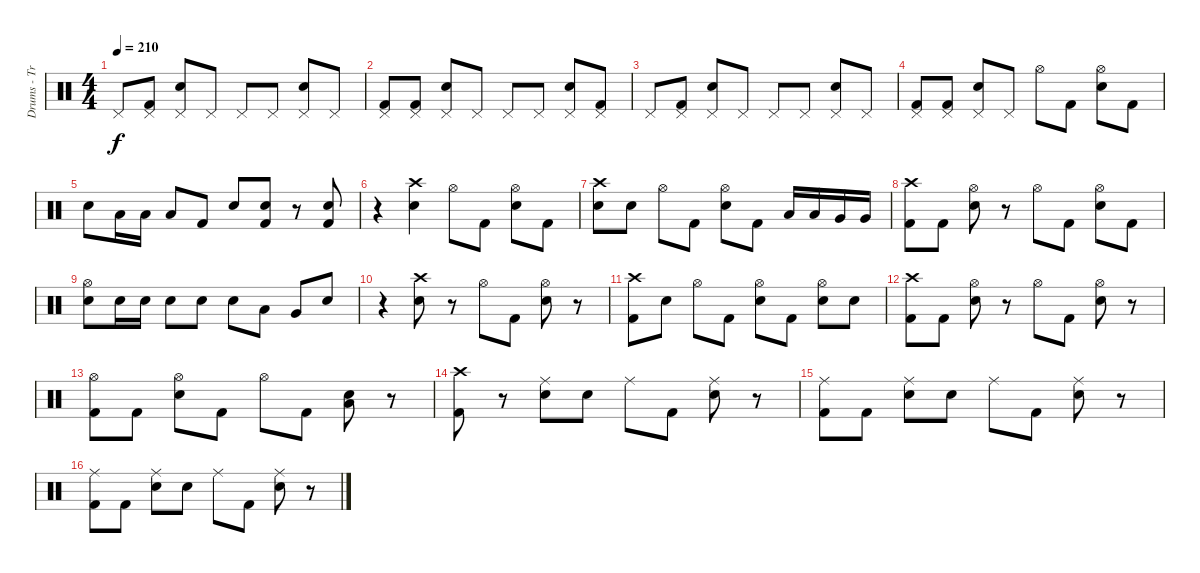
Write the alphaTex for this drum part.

\track ("Drums - Travis Barker" "Drums - Tr") {instrument percussion}
\staff {score}
\articulation defaults
\ts (4 4)
\tempo 210
\clef neutral
\ks c "Pedal Hi-Hat (hit)".8{dy f}
("Pedal Hi-Hat (hit)" "Kick (hit) 2").8 ("Pedal Hi-Hat (hit)" "Electric Snare (hit)").8 "Pedal Hi-Hat (hit)".8 "Pedal Hi-Hat (hit)".8 "Pedal Hi-Hat (hit)".8 ("Pedal Hi-Hat (hit)" "Electric Snare (hit)").8 "Pedal Hi-Hat (hit)".8 |
("Pedal Hi-Hat (hit)" "Kick (hit) 2").8 ("Pedal Hi-Hat (hit)" "Kick (hit) 2").8 ("Pedal Hi-Hat (hit)" "Electric Snare (hit)").8 "Pedal Hi-Hat (hit)".8 "Pedal Hi-Hat (hit)".8 "Pedal Hi-Hat (hit)".8 ("Pedal Hi-Hat (hit)" "Electric Snare (hit)").8 ("Pedal Hi-Hat (hit)" "Kick (hit) 2").8 |
"Pedal Hi-Hat (hit)".8 ("Pedal Hi-Hat (hit)" "Kick (hit) 2").8 ("Pedal Hi-Hat (hit)" "Electric Snare (hit)").8 "Pedal Hi-Hat (hit)".8 "Pedal Hi-Hat (hit)".8 "Pedal Hi-Hat (hit)".8 ("Pedal Hi-Hat (hit)" "Electric Snare (hit)").8 "Pedal Hi-Hat (hit)".8 |
("Pedal Hi-Hat (hit)" "Kick (hit) 2").8 ("Pedal Hi-Hat (hit)" "Kick (hit) 2").8 ("Pedal Hi-Hat (hit)" "Electric Snare (hit)").8 "Pedal Hi-Hat (hit)".8 "Hi-Hat (open)".8 "Kick (hit) 2".8 ("Hi-Hat (open)" "Electric Snare (hit)").8 "Kick (hit) 2".8 |
"Electric Snare (hit)".8 "Low Tom (hit)".16 "Low Tom (hit)".16 "Low Tom (hit)".8 "Kick (hit) 2".8 "Electric Snare (hit)".8 ("Snare (hit)"{x} "Kick (hit) 2").8 r.8 ("Snare (hit)"{x} "Kick (hit) 2").8 |
r.4 ("Crash high (hit)" "Electric Snare (hit)").4 "Hi-Hat (open)".8 "Kick (hit) 2".8 ("Hi-Hat (open)" "Electric Snare (hit)").8 "Kick (hit) 2".8 |
("Crash high (hit)" "Electric Snare (hit)").8 "Electric Snare (hit)".8 "Hi-Hat (open)".8 "Kick (hit) 2".8 ("Hi-Hat (open)" "Electric Snare (hit)").8 "Kick (hit) 2".8 "Low Tom (hit)".16 "Low Tom (hit)".16 "Very Low Tom (hit)".16 "Very Low Tom (hit)".16 |
("Crash high (hit)" "Kick (hit) 2").8 "Kick (hit) 2".8 ("Hi-Hat (open)" "Electric Snare (hit)").8 r.8 "Hi-Hat (open)".8 "Kick (hit) 2".8 ("Hi-Hat (open)" "Electric Snare (hit)").8 "Kick (hit) 2".8 |
("Hi-Hat (open)" "Electric Snare (hit)").8 "Electric Snare (hit)".16 "Electric Snare (hit)".16 "Electric Snare (hit)".8 "Electric Snare (hit)".8 "Electric Snare (hit)".8 "Low Tom (hit)".8 "Very Low Tom (hit)".8 "Electric Snare (hit)".8 |
r.4 ("Crash high (hit)" "Electric Snare (hit)").8 r.8 "Hi-Hat (open)".8 "Kick (hit) 2".8 ("Hi-Hat (open)" "Electric Snare (hit)").8 r.8 |
("Crash high (hit)" "Kick (hit) 2").8 "Electric Snare (hit)".8 "Hi-Hat (open)".8 "Kick (hit) 2".8 ("Hi-Hat (open)" "Electric Snare (hit)").8 "Kick (hit) 2".8 ("Hi-Hat (open)" "Electric Snare (hit)").8 "Electric Snare (hit)".8 |
("Crash high (hit)" "Kick (hit) 2").8 "Kick (hit) 2".8 ("Hi-Hat (open)" "Electric Snare (hit)").8 r.8 "Hi-Hat (open)".8 "Kick (hit) 2".8 ("Hi-Hat (open)" "Electric Snare (hit)").8 r.8 |
("Hi-Hat (open)" "Kick (hit) 2").8 "Kick (hit) 2".8 ("Hi-Hat (open)" "Electric Snare (hit)").8 "Kick (hit) 2".8 "Hi-Hat (open)".8 "Kick (hit) 2".8 ("Electric Snare (hit)" "Low Tom (hit)").8 r.8 |
("Crash high (hit)" "Kick (hit) 2").8 r.8 ("Ride (middle)" "Electric Snare (hit)").8 "Electric Snare (hit)".8 "Ride (middle)".8 "Kick (hit) 2".8 ("Ride (middle)" "Electric Snare (hit)").8 r.8 |
("Ride (middle)" "Kick (hit) 2").8 "Kick (hit) 2".8 ("Ride (middle)" "Electric Snare (hit)").8 "Electric Snare (hit)".8 "Ride (middle)".8 "Kick (hit) 2".8 ("Ride (middle)" "Electric Snare (hit)").8 r.8 |
("Ride (middle)" "Kick (hit) 2").8 "Kick (hit) 2".8 ("Ride (middle)" "Electric Snare (hit)").8 "Electric Snare (hit)".8 "Ride (middle)".8 "Kick (hit) 2".8 ("Ride (middle)" "Electric Snare (hit)").8 r.8
